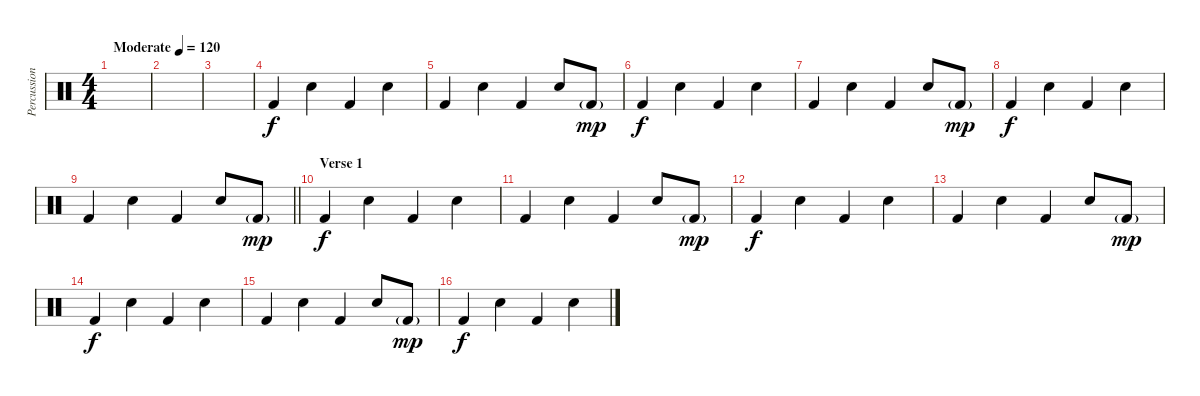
\track ("Percussion" "Percussion") {instrument percussion}
\staff {score}
\articulation defaults
\ts (4 4)
\tempo (120 "Moderate")
\clef neutral
\ks c
|
|
|
"Kick (hit) 2".4 "Snare (hit) 2".4 "Kick (hit) 2".4 "Snare (hit) 2".4 |
"Kick (hit) 2".4 "Snare (hit) 2".4 "Kick (hit) 2".4 "Snare (hit) 2".8 "Kick (hit) 2"{g}.8{dy mp} |
"Kick (hit) 2".4{dy f} "Snare (hit) 2".4 "Kick (hit) 2".4 "Snare (hit) 2".4 |
"Kick (hit) 2".4 "Snare (hit) 2".4 "Kick (hit) 2".4 "Snare (hit) 2".8 "Kick (hit) 2"{g}.8{dy mp} |
"Kick (hit) 2".4{dy f} "Snare (hit) 2".4 "Kick (hit) 2".4 "Snare (hit) 2".4 |
\barLineRight lightlight "Kick (hit) 2".4 "Snare (hit) 2".4 "Kick (hit) 2".4 "Snare (hit) 2".8 "Kick (hit) 2"{g}.8{dy mp}
|
\section ("" "Verse 1")
"Kick (hit) 2".4{dy f} "Snare (hit) 2".4 "Kick (hit) 2".4 "Snare (hit) 2".4 |
"Kick (hit) 2".4 "Snare (hit) 2".4 "Kick (hit) 2".4 "Snare (hit) 2".8 "Kick (hit) 2"{g}.8{dy mp} |
"Kick (hit) 2".4{dy f} "Snare (hit) 2".4 "Kick (hit) 2".4 "Snare (hit) 2".4 |
"Kick (hit) 2".4 "Snare (hit) 2".4 "Kick (hit) 2".4 "Snare (hit) 2".8 "Kick (hit) 2"{g}.8{dy mp} |
"Kick (hit) 2".4{dy f} "Snare (hit) 2".4 "Kick (hit) 2".4 "Snare (hit) 2".4 |
"Kick (hit) 2".4 "Snare (hit) 2".4 "Kick (hit) 2".4 "Snare (hit) 2".8 "Kick (hit) 2"{g}.8{dy mp} |
"Kick (hit) 2".4{dy f} "Snare (hit) 2".4 "Kick (hit) 2".4 "Snare (hit) 2".4
